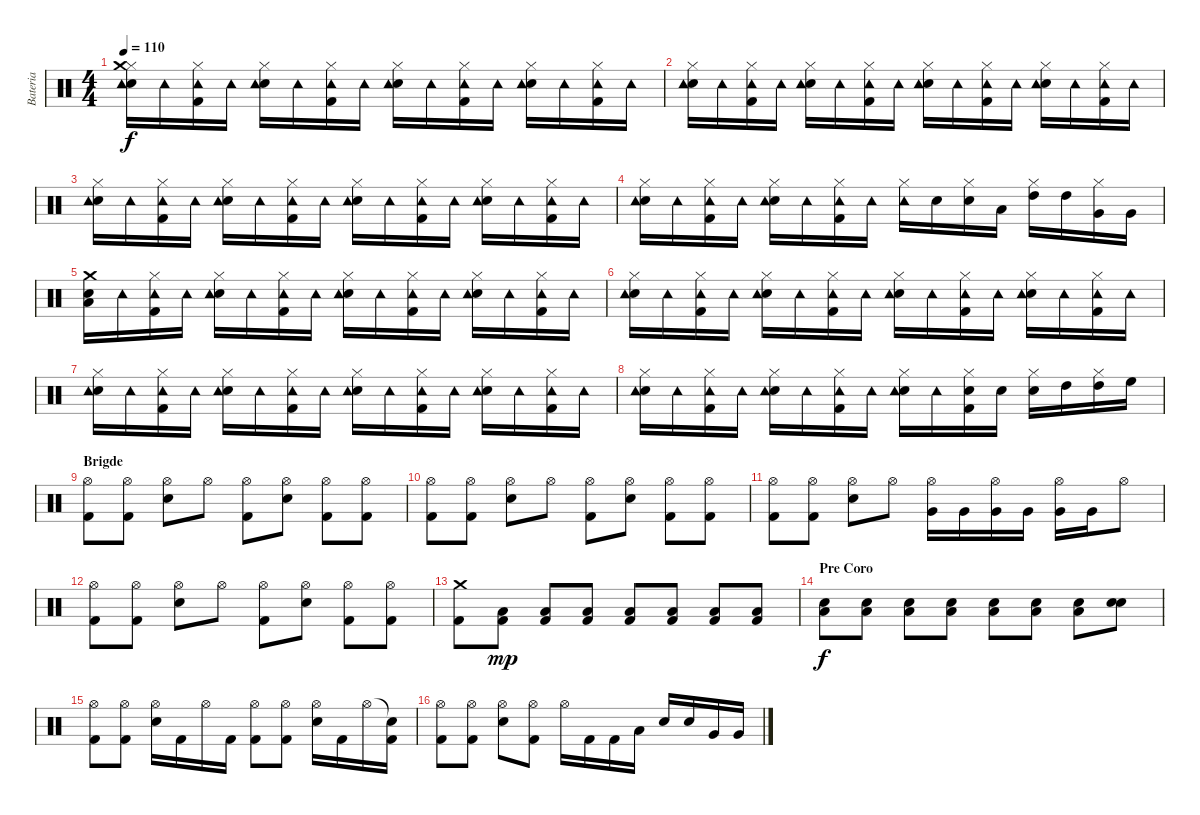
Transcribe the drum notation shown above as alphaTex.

\track ("Bateria" "Bateria") {instrument percussion}
\staff {score}
\articulation defaults
\ts (4 4)
\tempo 110
\clef neutral
\ks c
("Hi-Hat (closed)" "Snare (hit) 2" "Crash medium (hit)" "Tambourine (hit)").16{dy f} "Tambourine (hit)".16 ("Hi-Hat (closed)" "Kick (hit) 2" "Tambourine (hit)").16 "Tambourine (hit)".16 ("Hi-Hat (closed)" "Snare (hit) 2" "Tambourine (hit)").16 "Tambourine (hit)".16 ("Hi-Hat (closed)" "Kick (hit) 2" "Tambourine (hit)").16 "Tambourine (hit)".16 ("Hi-Hat (closed)" "Snare (hit) 2" "Tambourine (hit)").16 "Tambourine (hit)".16 ("Hi-Hat (closed)" "Kick (hit) 2" "Tambourine (hit)").16 "Tambourine (hit)".16 ("Hi-Hat (closed)" "Snare (hit) 2" "Tambourine (hit)").16 "Tambourine (hit)".16 ("Hi-Hat (closed)" "Kick (hit) 2" "Tambourine (hit)").16 "Tambourine (hit)".16 |
("Hi-Hat (closed)" "Snare (hit) 2" "Tambourine (hit)").16 "Tambourine (hit)".16 ("Hi-Hat (closed)" "Kick (hit) 2" "Tambourine (hit)").16 "Tambourine (hit)".16 ("Hi-Hat (closed)" "Snare (hit) 2" "Tambourine (hit)").16 "Tambourine (hit)".16 ("Hi-Hat (closed)" "Kick (hit) 2" "Tambourine (hit)").16 "Tambourine (hit)".16 ("Hi-Hat (closed)" "Snare (hit) 2" "Tambourine (hit)").16 "Tambourine (hit)".16 ("Hi-Hat (closed)" "Kick (hit) 2" "Tambourine (hit)").16 "Tambourine (hit)".16 ("Hi-Hat (closed)" "Snare (hit) 2" "Tambourine (hit)").16 "Tambourine (hit)".16 ("Hi-Hat (closed)" "Kick (hit) 2" "Tambourine (hit)").16 "Tambourine (hit)".16 |
("Hi-Hat (closed)" "Snare (hit) 2" "Tambourine (hit)").16 "Tambourine (hit)".16 ("Hi-Hat (closed)" "Kick (hit) 2" "Tambourine (hit)").16 "Tambourine (hit)".16 ("Hi-Hat (closed)" "Snare (hit) 2" "Tambourine (hit)").16 "Tambourine (hit)".16 ("Hi-Hat (closed)" "Kick (hit) 2" "Tambourine (hit)").16 "Tambourine (hit)".16 ("Hi-Hat (closed)" "Snare (hit) 2" "Tambourine (hit)").16 "Tambourine (hit)".16 ("Hi-Hat (closed)" "Kick (hit) 2" "Tambourine (hit)").16 "Tambourine (hit)".16 ("Hi-Hat (closed)" "Snare (hit) 2" "Tambourine (hit)").16 "Tambourine (hit)".16 ("Hi-Hat (closed)" "Kick (hit) 2" "Tambourine (hit)").16 "Tambourine (hit)".16 |
("Hi-Hat (closed)" "Snare (hit) 2" "Tambourine (hit)").16 "Tambourine (hit)".16 ("Hi-Hat (closed)" "Kick (hit) 2" "Tambourine (hit)").16 "Tambourine (hit)".16 ("Hi-Hat (closed)" "Snare (hit) 2" "Tambourine (hit)").16 "Tambourine (hit)".16 ("Hi-Hat (closed)" "Kick (hit) 2" "Tambourine (hit)").16 "Tambourine (hit)".16 ("Hi-Hat (closed)" "Tambourine (hit)").16 "Snare (hit) 2".16 ("Hi-Hat (closed)" "Snare (hit) 2").16 "Low Tom (hit)".16 ("Hi-Hat (closed)" "High Tom (hit)").16 "High Tom (hit)".16 ("Hi-Hat (closed)" "Very Low Tom (hit)").16 "Very Low Tom (hit)".16 |
("Crash medium (hit)" "Snare (hit) 2" "Low Tom (hit)").16 "Tambourine (hit)".16 ("Hi-Hat (closed)" "Kick (hit) 2" "Tambourine (hit)").16 "Tambourine (hit)".16 ("Hi-Hat (closed)" "Snare (hit) 2" "Tambourine (hit)").16 "Tambourine (hit)".16 ("Hi-Hat (closed)" "Kick (hit) 2" "Tambourine (hit)").16 "Tambourine (hit)".16 ("Hi-Hat (closed)" "Snare (hit) 2" "Tambourine (hit)").16 "Tambourine (hit)".16 ("Hi-Hat (closed)" "Kick (hit) 2" "Tambourine (hit)").16 "Tambourine (hit)".16 ("Hi-Hat (closed)" "Snare (hit) 2" "Tambourine (hit)").16 "Tambourine (hit)".16 ("Hi-Hat (closed)" "Kick (hit) 2" "Tambourine (hit)").16 "Tambourine (hit)".16 |
("Hi-Hat (closed)" "Snare (hit) 2" "Tambourine (hit)").16 "Tambourine (hit)".16 ("Hi-Hat (closed)" "Kick (hit) 2" "Tambourine (hit)").16 "Tambourine (hit)".16 ("Hi-Hat (closed)" "Snare (hit) 2" "Tambourine (hit)").16 "Tambourine (hit)".16 ("Hi-Hat (closed)" "Kick (hit) 2" "Tambourine (hit)").16 "Tambourine (hit)".16 ("Hi-Hat (closed)" "Snare (hit) 2" "Tambourine (hit)").16 "Tambourine (hit)".16 ("Hi-Hat (closed)" "Kick (hit) 2" "Tambourine (hit)").16 "Tambourine (hit)".16 ("Hi-Hat (closed)" "Snare (hit) 2" "Tambourine (hit)").16 "Tambourine (hit)".16 ("Hi-Hat (closed)" "Kick (hit) 2" "Tambourine (hit)").16 "Tambourine (hit)".16 |
("Hi-Hat (closed)" "Snare (hit) 2" "Tambourine (hit)").16 "Tambourine (hit)".16 ("Hi-Hat (closed)" "Kick (hit) 2" "Tambourine (hit)").16 "Tambourine (hit)".16 ("Hi-Hat (closed)" "Snare (hit) 2" "Tambourine (hit)").16 "Tambourine (hit)".16 ("Hi-Hat (closed)" "Kick (hit) 2" "Tambourine (hit)").16 "Tambourine (hit)".16 ("Hi-Hat (closed)" "Snare (hit) 2" "Tambourine (hit)").16 "Tambourine (hit)".16 ("Hi-Hat (closed)" "Kick (hit) 2" "Tambourine (hit)").16 "Tambourine (hit)".16 ("Hi-Hat (closed)" "Snare (hit) 2" "Tambourine (hit)").16 "Tambourine (hit)".16 ("Hi-Hat (closed)" "Kick (hit) 2" "Tambourine (hit)").16 "Tambourine (hit)".16 |
("Hi-Hat (closed)" "Snare (hit) 2" "Tambourine (hit)").16 "Tambourine (hit)".16 ("Hi-Hat (closed)" "Kick (hit) 2" "Tambourine (hit)").16 "Tambourine (hit)".16 ("Hi-Hat (closed)" "Snare (hit) 2" "Tambourine (hit)").16 "Tambourine (hit)".16 ("Hi-Hat (closed)" "Kick (hit) 2" "Tambourine (hit)").16 "Tambourine (hit)".16 ("Hi-Hat (closed)" "Snare (hit) 2" "Tambourine (hit)").16 "Tambourine (hit)".16 ("Hi-Hat (closed)" "Kick (hit) 2" "Snare (hit) 2").16 "Snare (hit) 2".16 ("Hi-Hat (closed)" "Snare (hit) 2").16 "High Tom (hit)".16 ("Hi-Hat (closed)" "High Tom (hit)").16 "High Floor Tom (hit)".16 |
\section ("" "Brigde")
("Hi-Hat (open)" "Kick (hit) 2").8 ("Hi-Hat (open)" "Kick (hit) 2").8 ("Hi-Hat (open)" "Electric Snare (hit)").8 "Hi-Hat (open)".8 ("Hi-Hat (open)" "Kick (hit) 2").8 ("Hi-Hat (open)" "Electric Snare (hit)").8 ("Hi-Hat (open)" "Kick (hit) 2").8 ("Hi-Hat (open)" "Kick (hit) 2").8 |
("Hi-Hat (open)" "Kick (hit) 2").8 ("Hi-Hat (open)" "Kick (hit) 2").8 ("Hi-Hat (open)" "Electric Snare (hit)").8 "Hi-Hat (open)".8 ("Hi-Hat (open)" "Kick (hit) 2").8 ("Hi-Hat (open)" "Electric Snare (hit)").8 ("Hi-Hat (open)" "Kick (hit) 2").8 ("Hi-Hat (open)" "Kick (hit) 2").8 |
("Hi-Hat (open)" "Kick (hit) 2").8 ("Hi-Hat (open)" "Kick (hit) 2").8 ("Hi-Hat (open)" "Electric Snare (hit)").8 "Hi-Hat (open)".8 ("Hi-Hat (open)" "Very Low Tom (hit)").16 "Very Low Tom (hit)".16 ("Hi-Hat (open)" "Very Low Tom (hit)").16 "Very Low Tom (hit)".16 ("Hi-Hat (open)" "Very Low Tom (hit)").16 "Very Low Tom (hit)".16 "Hi-Hat (open)".8 |
("Hi-Hat (open)" "Kick (hit) 2").8 ("Hi-Hat (open)" "Kick (hit) 2").8 ("Hi-Hat (open)" "Electric Snare (hit)").8 "Hi-Hat (open)".8 ("Hi-Hat (open)" "Kick (hit) 2").8 ("Hi-Hat (open)" "Electric Snare (hit)").8 ("Hi-Hat (open)" "Kick (hit) 2").8 ("Hi-Hat (open)" "Kick (hit) 2").8 |
("Crash medium (hit)" "Kick (hit) 2").8 ("Kick (hit) 2" "Low Floor Tom (hit)").8{dy mp} ("Kick (hit) 2" "Low Floor Tom (hit)").8 ("Kick (hit) 2" "Low Floor Tom (hit)").8 ("Kick (hit) 2" "Low Floor Tom (hit)").8 ("Kick (hit) 2" "Low Floor Tom (hit)").8 ("Kick (hit) 2" "Low Floor Tom (hit)").8 ("Kick (hit) 2" "Low Floor Tom (hit)").8 |
\section ("" "Pre Coro")
("Snare (hit) 2" "Low Floor Tom (hit)").8{dy f} ("Snare (hit) 2" "Low Floor Tom (hit)").8 ("Snare (hit) 2" "Low Floor Tom (hit)").8 ("Snare (hit) 2" "Low Floor Tom (hit)").8 ("Snare (hit) 2" "Low Floor Tom (hit)").8 ("Snare (hit) 2" "Low Floor Tom (hit)").8 ("Snare (hit) 2" "Low Floor Tom (hit)").8 ("Snare (hit) 2" "Snare (hit)").8 |
("Hi-Hat (open)" "Kick (hit) 2").8 ("Hi-Hat (open)" "Kick (hit) 2").8 ("Hi-Hat (open)" "Snare (hit) 2").16 "Kick (hit) 2".16 "Hi-Hat (open)".16 "Kick (hit) 2".16 ("Hi-Hat (open)" "Kick (hit) 2").8 ("Hi-Hat (open)" "Kick (hit) 2").8 ("Hi-Hat (open)" "Snare (hit) 2").16 "Kick (hit) 2".16 "Hi-Hat (open)".16 ("Snare (hit)"{t} "Kick (hit) 2").16 |
("Hi-Hat (open)" "Kick (hit) 2").8 ("Hi-Hat (open)" "Kick (hit) 2").8 ("Hi-Hat (open)" "Snare (hit) 2").8 ("Hi-Hat (open)" "Kick (hit) 2").8 "Hi-Hat (open)".16 "Kick (hit) 2".16 "Kick (hit) 2".16 "Low Tom (hit)".16 "Snare (hit) 2".16 "Snare (hit) 2".16 "Very Low Tom (hit)".16 "Very Low Tom (hit)".16
